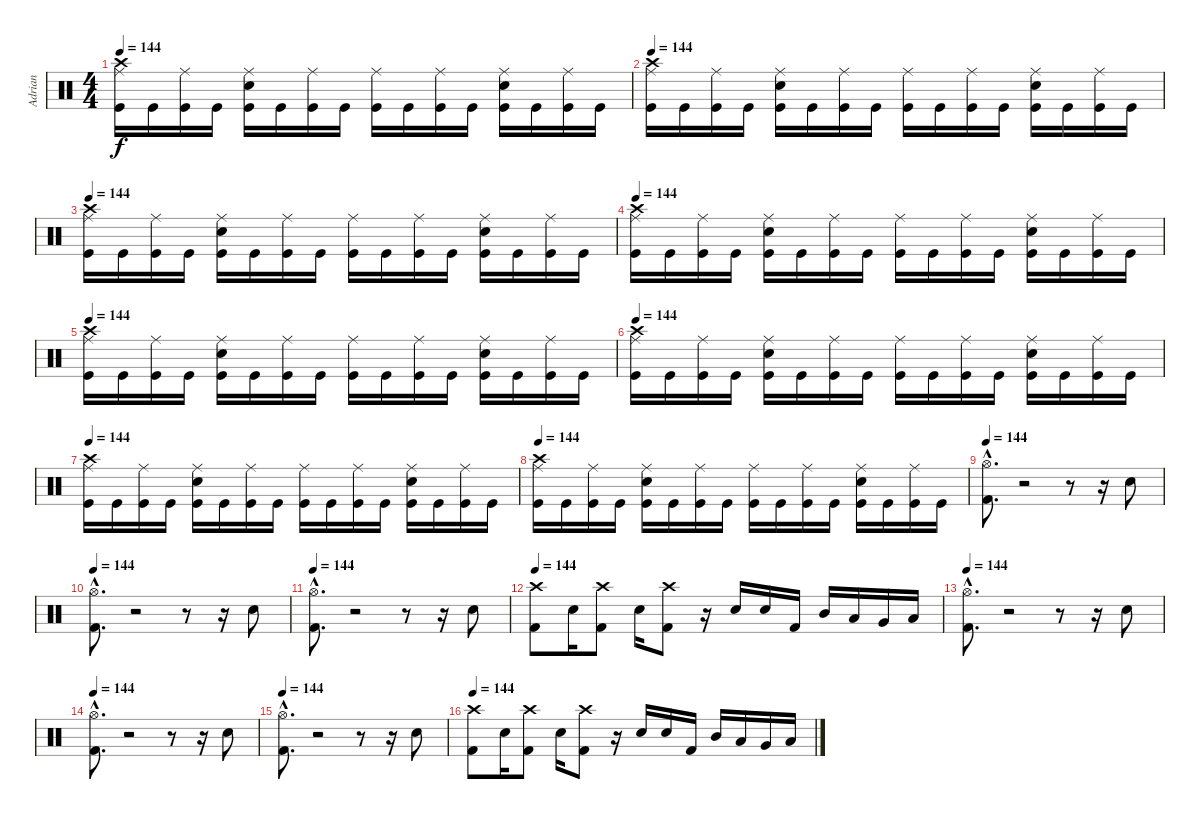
\track ("Adrian" "Adrian") {instrument percussion}
\staff {score}
\articulation defaults
\ts (4 4)
\tempo 144
\clef neutral
\ks c
("Kick (hit)" "Ride (middle)" "Crash high (hit)").16{dy f} "Kick (hit)".16 ("Kick (hit)" "Ride (middle)").16 "Kick (hit)".16 ("Kick (hit)" "Snare (hit) 2" "Ride (middle)").16 "Kick (hit)".16 ("Kick (hit)" "Ride (middle)").16 "Kick (hit)".16 ("Kick (hit)" "Ride (middle)").16 "Kick (hit)".16 ("Kick (hit)" "Ride (middle)").16 "Kick (hit)".16 ("Kick (hit)" "Snare (hit) 2" "Ride (middle)").16 "Kick (hit)".16 ("Kick (hit)" "Ride (middle)").16 "Kick (hit)".16 |
\tempo 144
("Kick (hit)" "Ride (middle)" "Crash high (hit)").16 "Kick (hit)".16 ("Kick (hit)" "Ride (middle)").16 "Kick (hit)".16 ("Kick (hit)" "Snare (hit) 2" "Ride (middle)").16 "Kick (hit)".16 ("Kick (hit)" "Ride (middle)").16 "Kick (hit)".16 ("Kick (hit)" "Ride (middle)").16 "Kick (hit)".16 ("Kick (hit)" "Ride (middle)").16 "Kick (hit)".16 ("Kick (hit)" "Snare (hit) 2" "Ride (middle)").16 "Kick (hit)".16 ("Kick (hit)" "Ride (middle)").16 "Kick (hit)".16 |
\tempo 144
("Kick (hit)" "Ride (middle)" "Crash high (hit)").16 "Kick (hit)".16 ("Kick (hit)" "Ride (middle)").16 "Kick (hit)".16 ("Kick (hit)" "Snare (hit) 2" "Ride (middle)").16 "Kick (hit)".16 ("Kick (hit)" "Ride (middle)").16 "Kick (hit)".16 ("Kick (hit)" "Ride (middle)").16 "Kick (hit)".16 ("Kick (hit)" "Ride (middle)").16 "Kick (hit)".16 ("Kick (hit)" "Snare (hit) 2" "Ride (middle)").16 "Kick (hit)".16 ("Kick (hit)" "Ride (middle)").16 "Kick (hit)".16 |
\tempo 144
("Kick (hit)" "Ride (middle)" "Crash high (hit)").16 "Kick (hit)".16 ("Kick (hit)" "Ride (middle)").16 "Kick (hit)".16 ("Kick (hit)" "Snare (hit) 2" "Ride (middle)").16 "Kick (hit)".16 ("Kick (hit)" "Ride (middle)").16 "Kick (hit)".16 ("Kick (hit)" "Ride (middle)").16 "Kick (hit)".16 ("Kick (hit)" "Ride (middle)").16 "Kick (hit)".16 ("Kick (hit)" "Snare (hit) 2" "Ride (middle)").16 "Kick (hit)".16 ("Kick (hit)" "Ride (middle)").16 "Kick (hit)".16 |
\tempo 144
("Kick (hit)" "Ride (middle)" "Crash high (hit)").16 "Kick (hit)".16 ("Kick (hit)" "Ride (middle)").16 "Kick (hit)".16 ("Kick (hit)" "Snare (hit) 2" "Ride (middle)").16 "Kick (hit)".16 ("Kick (hit)" "Ride (middle)").16 "Kick (hit)".16 ("Kick (hit)" "Ride (middle)").16 "Kick (hit)".16 ("Kick (hit)" "Ride (middle)").16 "Kick (hit)".16 ("Kick (hit)" "Snare (hit) 2" "Ride (middle)").16 "Kick (hit)".16 ("Kick (hit)" "Ride (middle)").16 "Kick (hit)".16 |
\tempo 144
("Kick (hit)" "Ride (middle)" "Crash high (hit)").16 "Kick (hit)".16 ("Kick (hit)" "Ride (middle)").16 "Kick (hit)".16 ("Kick (hit)" "Snare (hit) 2" "Ride (middle)").16 "Kick (hit)".16 ("Kick (hit)" "Ride (middle)").16 "Kick (hit)".16 ("Kick (hit)" "Ride (middle)").16 "Kick (hit)".16 ("Kick (hit)" "Ride (middle)").16 "Kick (hit)".16 ("Kick (hit)" "Snare (hit) 2" "Ride (middle)").16 "Kick (hit)".16 ("Kick (hit)" "Ride (middle)").16 "Kick (hit)".16 |
\tempo 144
("Kick (hit)" "Ride (middle)" "Crash high (hit)").16 "Kick (hit)".16 ("Kick (hit)" "Ride (middle)").16 "Kick (hit)".16 ("Kick (hit)" "Snare (hit) 2" "Ride (middle)").16 "Kick (hit)".16 ("Kick (hit)" "Ride (middle)").16 "Kick (hit)".16 ("Kick (hit)" "Ride (middle)").16 "Kick (hit)".16 ("Kick (hit)" "Ride (middle)").16 "Kick (hit)".16 ("Kick (hit)" "Snare (hit) 2" "Ride (middle)").16 "Kick (hit)".16 ("Kick (hit)" "Ride (middle)").16 "Kick (hit)".16 |
\tempo 144
("Kick (hit)" "Ride (middle)" "Crash high (hit)").16 "Kick (hit)".16 ("Kick (hit)" "Ride (middle)").16 "Kick (hit)".16 ("Kick (hit)" "Snare (hit) 2" "Ride (middle)").16 "Kick (hit)".16 ("Kick (hit)" "Ride (middle)").16 "Kick (hit)".16 ("Kick (hit)" "Ride (middle)").16 "Kick (hit)".16 ("Kick (hit)" "Ride (middle)").16 "Kick (hit)".16 ("Kick (hit)" "Snare (hit) 2" "Ride (middle)").16 "Kick (hit)".16 ("Kick (hit)" "Ride (middle)").16 "Kick (hit)".16 |
\tempo 144
("Kick (hit) 2"{hac} "Hi-Hat (open)"{hac}).8{d} r.2 r.8 r.16 "Snare (hit) 2".8 |
\tempo 144
("Kick (hit) 2"{hac} "Hi-Hat (open)"{hac}).8{d} r.2 r.8 r.16 "Snare (hit) 2".8 |
\tempo 144
("Kick (hit) 2"{hac} "Hi-Hat (open)"{hac}).8{d} r.2 r.8 r.16 "Snare (hit) 2".8 |
\tempo 144
("Kick (hit) 2" "Crash high (hit)").8 "Snare (hit) 2".16 ("Kick (hit) 2" "Crash high (hit)").8 "Snare (hit) 2".16 ("Kick (hit) 2" "Crash high (hit)").8 r.16 "Snare (hit) 2".16 "Snare (hit) 2".16 "Kick (hit) 2".16 "Mid Tom (hit)".16 "Low Tom (hit)".16 "Very Low Tom (hit)".16 "Low Floor Tom (hit)".16 |
\tempo 144
("Kick (hit) 2"{hac} "Hi-Hat (open)"{hac}).8{d} r.2 r.8 r.16 "Snare (hit) 2".8 |
\tempo 144
("Kick (hit) 2"{hac} "Hi-Hat (open)"{hac}).8{d} r.2 r.8 r.16 "Snare (hit) 2".8 |
\tempo 144
("Kick (hit) 2"{hac} "Hi-Hat (open)"{hac}).8{d} r.2 r.8 r.16 "Snare (hit) 2".8 |
\tempo 144
("Kick (hit) 2" "Crash high (hit)").8 "Snare (hit) 2".16 ("Kick (hit) 2" "Crash high (hit)").8 "Snare (hit) 2".16 ("Kick (hit) 2" "Crash high (hit)").8 r.16 "Snare (hit) 2".16 "Snare (hit) 2".16 "Kick (hit) 2".16 "Mid Tom (hit)".16 "Low Tom (hit)".16 "Very Low Tom (hit)".16 "Low Floor Tom (hit)".16
